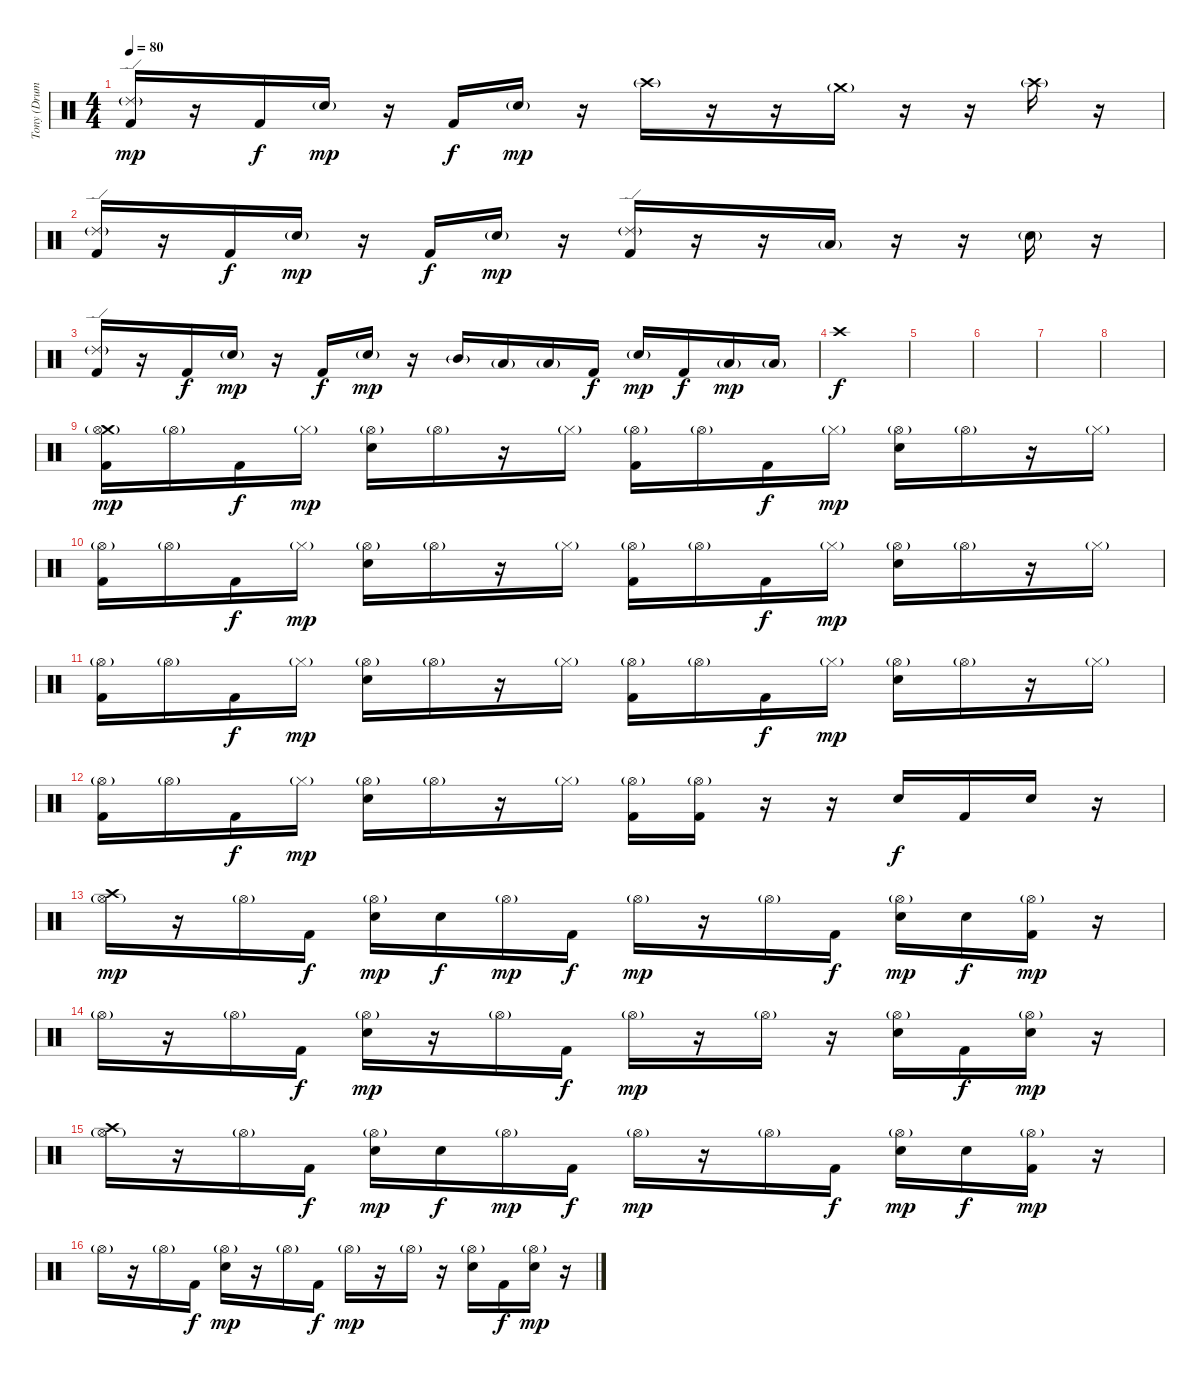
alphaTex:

\track ("Tony (Drums)" "Tony (Drum") {instrument percussion}
\staff {score}
\articulation defaults
\ts (4 4)
\tempo 80
\clef neutral
\ks c
("Ride (edge) 2"{g} "Kick (hit) 2").16{dy mp} r.16 "Kick (hit) 2".16{dy f} "Snare (hit) 2"{g}.16{dy mp} r.16 "Kick (hit) 2".16{dy f} "Snare (hit) 2"{g}.16{dy mp} r.16 "Crash high (hit)"{g}.16 r.16 r.16 "Crash medium (hit)"{g}.16 r.16 r.16 "Crash high (hit)"{g}.16 r.16 |
("Ride (edge) 2"{g} "Kick (hit) 2").16 r.16 "Kick (hit) 2".16{dy f} "Snare (hit) 2"{g}.16{dy mp} r.16 "Kick (hit) 2".16{dy f} "Snare (hit) 2"{g}.16{dy mp} r.16 ("Ride (edge) 2"{g} "Kick (hit) 2").16 r.16 r.16 "Low Tom (hit)"{g}.16 r.16 r.16 "Snare (hit) 2"{g}.16 r.16 |
("Ride (edge) 2"{g} "Kick (hit) 2").16 r.16 "Kick (hit) 2".16{dy f} "Snare (hit) 2"{g}.16{dy mp} r.16 "Kick (hit) 2".16{dy f} "Snare (hit) 2"{g}.16{dy mp} r.16 "Mid Tom (hit)"{g}.16 "Low Tom (hit)"{g}.16 "Low Tom (hit)"{g}.16 "Kick (hit) 2".16{dy f} "Snare (hit) 2"{g}.16{dy mp} "Kick (hit) 2".16{dy f} "Low Tom (hit)"{g}.16{dy mp} "Low Tom (hit)"{g}.16 |
"Crash high (hit)".1{dy f} |
|
|
|
|
("Crash medium (hit)" "Hi-Hat (open)"{g} "Kick (hit) 2").16{dy mp} "Hi-Hat (open)"{g}.16 "Kick (hit) 2".16{dy f} "Hi-Hat (closed)"{g}.16{dy mp} ("Hi-Hat (open)"{g} "Snare (hit) 2").16 "Hi-Hat (open)"{g}.16 r.16 "Hi-Hat (closed)"{g}.16 ("Hi-Hat (open)"{g} "Kick (hit) 2").16 "Hi-Hat (open)"{g}.16 "Kick (hit) 2".16{dy f} "Hi-Hat (closed)"{g}.16{dy mp} ("Hi-Hat (open)"{g} "Snare (hit) 2").16 "Hi-Hat (open)"{g}.16 r.16 "Hi-Hat (closed)"{g}.16 |
("Hi-Hat (open)"{g} "Kick (hit) 2").16 "Hi-Hat (open)"{g}.16 "Kick (hit) 2".16{dy f} "Hi-Hat (closed)"{g}.16{dy mp} ("Hi-Hat (open)"{g} "Snare (hit) 2").16 "Hi-Hat (open)"{g}.16 r.16 "Hi-Hat (closed)"{g}.16 ("Hi-Hat (open)"{g} "Kick (hit) 2").16 "Hi-Hat (open)"{g}.16 "Kick (hit) 2".16{dy f} "Hi-Hat (closed)"{g}.16{dy mp} ("Hi-Hat (open)"{g} "Snare (hit) 2").16 "Hi-Hat (open)"{g}.16 r.16 "Hi-Hat (closed)"{g}.16 |
("Hi-Hat (open)"{g} "Kick (hit) 2").16 "Hi-Hat (open)"{g}.16 "Kick (hit) 2".16{dy f} "Hi-Hat (closed)"{g}.16{dy mp} ("Hi-Hat (open)"{g} "Snare (hit) 2").16 "Hi-Hat (open)"{g}.16 r.16 "Hi-Hat (closed)"{g}.16 ("Hi-Hat (open)"{g} "Kick (hit) 2").16 "Hi-Hat (open)"{g}.16 "Kick (hit) 2".16{dy f} "Hi-Hat (closed)"{g}.16{dy mp} ("Hi-Hat (open)"{g} "Snare (hit) 2").16 "Hi-Hat (open)"{g}.16 r.16 "Hi-Hat (closed)"{g}.16 |
("Hi-Hat (open)"{g} "Kick (hit) 2").16 "Hi-Hat (open)"{g}.16 "Kick (hit) 2".16{dy f} "Hi-Hat (closed)"{g}.16{dy mp} ("Hi-Hat (open)"{g} "Snare (hit) 2").16 "Hi-Hat (open)"{g}.16 r.16 "Hi-Hat (closed)"{g}.16 ("Hi-Hat (open)"{g} "Kick (hit) 2").16 ("Hi-Hat (open)"{g} "Kick (hit) 2").16 r.16 r.16 "Snare (hit) 2".16{dy f} "Kick (hit) 2".16 "Snare (hit) 2".16 r.16 |
("Crash high (hit)" "Hi-Hat (open)"{g}).16{dy mp} r.16 "Hi-Hat (open)"{g}.16 "Kick (hit) 2".16{dy f} ("Hi-Hat (open)"{g} "Snare (hit) 2").16{dy mp} "Snare (hit) 2".16{dy f} "Hi-Hat (open)"{g}.16{dy mp} "Kick (hit) 2".16{dy f} "Hi-Hat (open)"{g}.16{dy mp} r.16 "Hi-Hat (open)"{g}.16 "Kick (hit) 2".16{dy f} ("Hi-Hat (open)"{g} "Snare (hit) 2").16{dy mp} "Snare (hit) 2".16{dy f} ("Hi-Hat (open)"{g} "Kick (hit) 2").16{dy mp} r.16 |
"Hi-Hat (open)"{g}.16 r.16 "Hi-Hat (open)"{g}.16 "Kick (hit) 2".16{dy f} ("Hi-Hat (open)"{g} "Snare (hit) 2").16{dy mp} r.16 "Hi-Hat (open)"{g}.16 "Kick (hit) 2".16{dy f} "Hi-Hat (open)"{g}.16{dy mp} r.16 "Hi-Hat (open)"{g}.16 r.16 ("Hi-Hat (open)"{g} "Snare (hit) 2").16 "Kick (hit) 2".16{dy f} ("Hi-Hat (open)"{g} "Snare (hit) 2").16{dy mp} r.16 |
("Crash high (hit)" "Hi-Hat (open)"{g}).16 r.16 "Hi-Hat (open)"{g}.16 "Kick (hit) 2".16{dy f} ("Hi-Hat (open)"{g} "Snare (hit) 2").16{dy mp} "Snare (hit) 2".16{dy f} "Hi-Hat (open)"{g}.16{dy mp} "Kick (hit) 2".16{dy f} "Hi-Hat (open)"{g}.16{dy mp} r.16 "Hi-Hat (open)"{g}.16 "Kick (hit) 2".16{dy f} ("Hi-Hat (open)"{g} "Snare (hit) 2").16{dy mp} "Snare (hit) 2".16{dy f} ("Hi-Hat (open)"{g} "Kick (hit) 2").16{dy mp} r.16 |
"Hi-Hat (open)"{g}.16 r.16 "Hi-Hat (open)"{g}.16 "Kick (hit) 2".16{dy f} ("Hi-Hat (open)"{g} "Snare (hit) 2").16{dy mp} r.16 "Hi-Hat (open)"{g}.16 "Kick (hit) 2".16{dy f} "Hi-Hat (open)"{g}.16{dy mp} r.16 "Hi-Hat (open)"{g}.16 r.16 ("Hi-Hat (open)"{g} "Snare (hit) 2").16 "Kick (hit) 2".16{dy f} ("Hi-Hat (open)"{g} "Snare (hit) 2").16{dy mp} r.16
